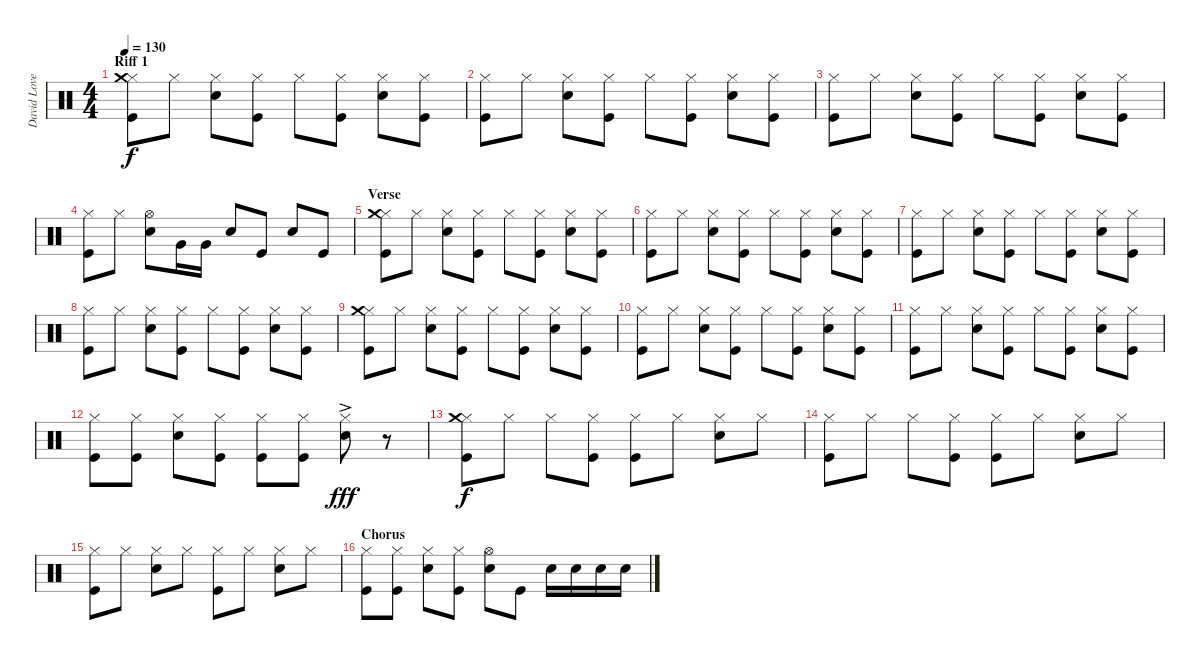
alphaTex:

\track ("David Lovering" "David Love") {instrument percussion}
\staff {score}
\articulation defaults
\ts (4 4)
\section ("" "Riff 1")
\tempo 130
\clef neutral
\ks c
("Hi-Hat (closed)" "Crash medium (hit)" "Kick (hit)").8{dy f} "Hi-Hat (closed)".8 ("Hi-Hat (closed)" "Snare (hit) 2").8 ("Hi-Hat (closed)" "Kick (hit)").8 "Hi-Hat (closed)".8 ("Hi-Hat (closed)" "Kick (hit)").8 ("Hi-Hat (closed)" "Snare (hit) 2").8 ("Hi-Hat (closed)" "Kick (hit)").8 |
("Hi-Hat (closed)" "Kick (hit)").8 "Hi-Hat (closed)".8 ("Hi-Hat (closed)" "Snare (hit) 2").8 ("Hi-Hat (closed)" "Kick (hit)").8 "Hi-Hat (closed)".8 ("Hi-Hat (closed)" "Kick (hit)").8 ("Hi-Hat (closed)" "Snare (hit) 2").8 ("Hi-Hat (closed)" "Kick (hit)").8 |
("Hi-Hat (closed)" "Kick (hit)").8 "Hi-Hat (closed)".8 ("Hi-Hat (closed)" "Snare (hit) 2").8 ("Hi-Hat (closed)" "Kick (hit)").8 "Hi-Hat (closed)".8 ("Hi-Hat (closed)" "Kick (hit)").8 ("Hi-Hat (closed)" "Snare (hit) 2").8 ("Hi-Hat (closed)" "Kick (hit)").8 |
("Hi-Hat (closed)" "Kick (hit)").8 "Hi-Hat (closed)".8 ("Hi-Hat (open)" "Snare (hit) 2").8 "Very Low Tom (hit)".16 "Very Low Tom (hit)".16 "Snare (hit) 2".8 "Kick (hit)".8 "Snare (hit) 2".8 "Kick (hit)".8 |
\section ("" "Verse")
("Hi-Hat (closed)" "Crash medium (hit)" "Kick (hit)").8 "Hi-Hat (closed)".8 ("Hi-Hat (closed)" "Snare (hit) 2").8 ("Hi-Hat (closed)" "Kick (hit)").8 "Hi-Hat (closed)".8 ("Hi-Hat (closed)" "Kick (hit)").8 ("Hi-Hat (closed)" "Snare (hit) 2").8 ("Hi-Hat (closed)" "Kick (hit)").8 |
("Hi-Hat (closed)" "Kick (hit)").8 "Hi-Hat (closed)".8 ("Hi-Hat (closed)" "Snare (hit) 2").8 ("Hi-Hat (closed)" "Kick (hit)").8 "Hi-Hat (closed)".8 ("Hi-Hat (closed)" "Kick (hit)").8 ("Hi-Hat (closed)" "Snare (hit) 2").8 ("Hi-Hat (closed)" "Kick (hit)").8 |
("Hi-Hat (closed)" "Kick (hit)").8 "Hi-Hat (closed)".8 ("Hi-Hat (closed)" "Snare (hit) 2").8 ("Hi-Hat (closed)" "Kick (hit)").8 "Hi-Hat (closed)".8 ("Hi-Hat (closed)" "Kick (hit)").8 ("Hi-Hat (closed)" "Snare (hit) 2").8 ("Hi-Hat (closed)" "Kick (hit)").8 |
("Hi-Hat (closed)" "Kick (hit)").8 "Hi-Hat (closed)".8 ("Hi-Hat (closed)" "Snare (hit) 2").8 ("Hi-Hat (closed)" "Kick (hit)").8 "Hi-Hat (closed)".8 ("Hi-Hat (closed)" "Kick (hit)").8 ("Hi-Hat (closed)" "Snare (hit) 2").8 ("Hi-Hat (closed)" "Kick (hit)").8 |
("Hi-Hat (closed)" "Crash medium (hit)" "Kick (hit)").8 "Hi-Hat (closed)".8 ("Hi-Hat (closed)" "Snare (hit) 2").8 ("Hi-Hat (closed)" "Kick (hit)").8 "Hi-Hat (closed)".8 ("Hi-Hat (closed)" "Kick (hit)").8 ("Hi-Hat (closed)" "Snare (hit) 2").8 ("Hi-Hat (closed)" "Kick (hit)").8 |
("Hi-Hat (closed)" "Kick (hit)").8 "Hi-Hat (closed)".8 ("Hi-Hat (closed)" "Snare (hit) 2").8 ("Hi-Hat (closed)" "Kick (hit)").8 "Hi-Hat (closed)".8 ("Hi-Hat (closed)" "Kick (hit)").8 ("Hi-Hat (closed)" "Snare (hit) 2").8 ("Hi-Hat (closed)" "Kick (hit)").8 |
("Hi-Hat (closed)" "Kick (hit)").8 "Hi-Hat (closed)".8 ("Hi-Hat (closed)" "Snare (hit) 2").8 ("Hi-Hat (closed)" "Kick (hit)").8 "Hi-Hat (closed)".8 ("Hi-Hat (closed)" "Kick (hit)").8 ("Hi-Hat (closed)" "Snare (hit) 2").8 ("Hi-Hat (closed)" "Kick (hit)").8 |
("Hi-Hat (closed)" "Kick (hit)").8 ("Hi-Hat (closed)" "Kick (hit)").8 ("Hi-Hat (closed)" "Snare (hit) 2").8 ("Hi-Hat (closed)" "Kick (hit)").8 ("Hi-Hat (closed)" "Kick (hit)").8 ("Hi-Hat (closed)" "Kick (hit)").8 ("Hi-Hat (closed)" "Snare (hit) 2"{ac}).8{dy fff} r.8 |
\section ("" "")
("Hi-Hat (closed)" "Crash medium (hit)" "Kick (hit)").8{dy f} "Hi-Hat (closed)".8 "Hi-Hat (closed)".8 ("Hi-Hat (closed)" "Kick (hit)").8 ("Hi-Hat (closed)" "Kick (hit)").8 "Hi-Hat (closed)".8 ("Hi-Hat (closed)" "Snare (hit) 2").8 "Hi-Hat (closed)".8 |
("Hi-Hat (closed)" "Kick (hit)").8 "Hi-Hat (closed)".8 "Hi-Hat (closed)".8 ("Hi-Hat (closed)" "Kick (hit)").8 ("Hi-Hat (closed)" "Kick (hit)").8 "Hi-Hat (closed)".8 ("Hi-Hat (closed)" "Snare (hit) 2").8 "Hi-Hat (closed)".8 |
("Hi-Hat (closed)" "Kick (hit)").8 "Hi-Hat (closed)".8 ("Hi-Hat (closed)" "Snare (hit) 2").8 "Hi-Hat (closed)".8 ("Hi-Hat (closed)" "Kick (hit)").8 "Hi-Hat (closed)".8 ("Hi-Hat (closed)" "Snare (hit) 2").8 "Hi-Hat (closed)".8 |
\section ("" "Chorus")
("Hi-Hat (closed)" "Kick (hit)").8 ("Hi-Hat (closed)" "Kick (hit)").8 ("Hi-Hat (closed)" "Snare (hit) 2").8 ("Hi-Hat (closed)" "Kick (hit)").8 ("Hi-Hat (open)" "Snare (hit) 2").8 "Kick (hit)".8 "Snare (hit) 2".16 "Snare (hit) 2".16 "Snare (hit) 2".16 "Snare (hit) 2".16
